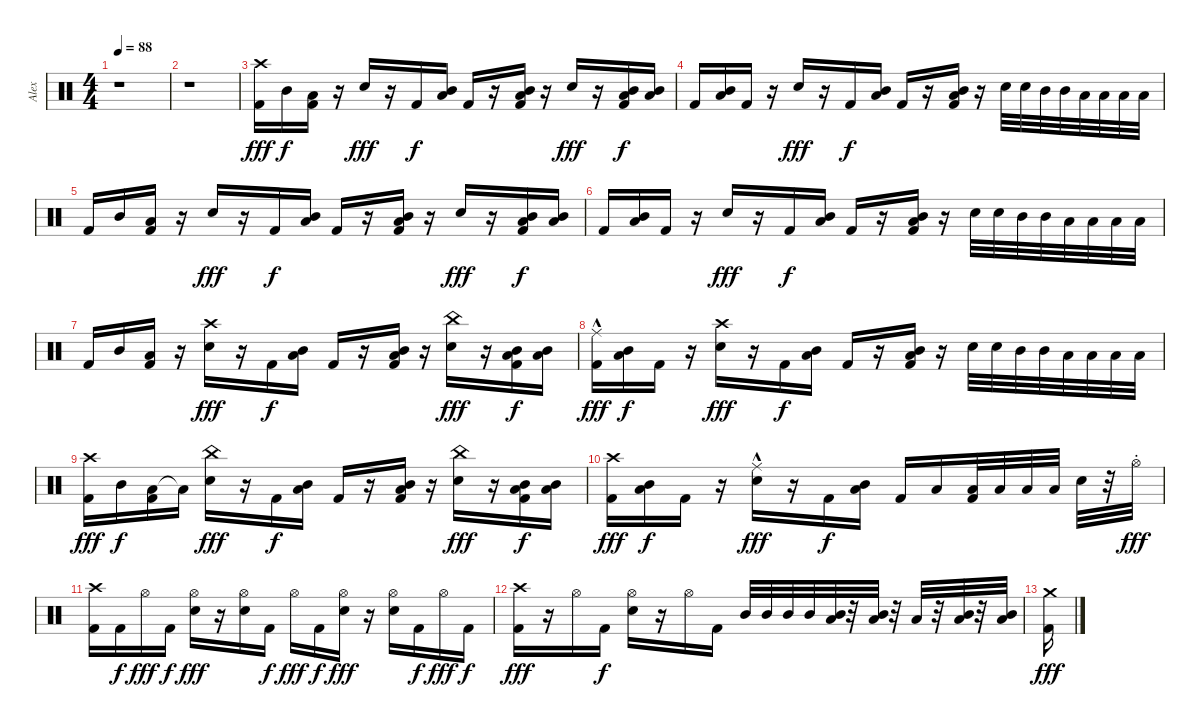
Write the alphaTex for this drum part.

\track ("Alex" "Alex") {instrument percussion}
\staff {score}
\articulation defaults
\ts (4 4)
\tempo 88
\clef neutral
\ks c
r.1{dy fff} |
r.1 |
("Crash high (hit)" "Kick (hit) 2").16 "Mid Tom (hit)".16{dy f} ("Low Tom (hit)" "Kick (hit) 2").16 r.16 "Snare (hit) 2".16{dy fff} r.16 "Kick (hit) 2".16{dy f} ("Mid Tom (hit)" "Low Tom (hit)").16 "Kick (hit) 2".16 r.16 ("Mid Tom (hit)" "Low Tom (hit)" "Kick (hit) 2").16 r.16 "Snare (hit) 2".16{dy fff} r.16 ("Mid Tom (hit)" "Low Tom (hit)" "Kick (hit) 2").16{dy f} ("Mid Tom (hit)" "Low Tom (hit)").16 |
"Kick (hit) 2".16 ("Mid Tom (hit)" "Low Tom (hit)").16 "Kick (hit) 2".16 r.16 "Snare (hit) 2".16{dy fff} r.16 "Kick (hit) 2".16{dy f} ("Mid Tom (hit)" "Low Tom (hit)").16 "Kick (hit) 2".16 r.16 ("Mid Tom (hit)" "Low Tom (hit)" "Kick (hit) 2").16 r.16 "Snare (hit) 2".32 "Snare (hit) 2".32 "Mid Tom (hit)".32 "Mid Tom (hit)".32 "Low Tom (hit)".32 "Low Tom (hit)".32 "Low Tom (hit)".32 "Low Tom (hit)".32 |
"Kick (hit) 2".16 "Mid Tom (hit)".16 ("Low Tom (hit)" "Kick (hit) 2").16 r.16 "Snare (hit) 2".16{dy fff} r.16 "Kick (hit) 2".16{dy f} ("Mid Tom (hit)" "Low Tom (hit)").16 "Kick (hit) 2".16 r.16 ("Mid Tom (hit)" "Low Tom (hit)" "Kick (hit) 2").16 r.16 "Snare (hit) 2".16{dy fff} r.16 ("Mid Tom (hit)" "Low Tom (hit)" "Kick (hit) 2").16{dy f} ("Mid Tom (hit)" "Low Tom (hit)").16 |
"Kick (hit) 2".16 ("Mid Tom (hit)" "Low Tom (hit)").16 "Kick (hit) 2".16 r.16 "Snare (hit) 2".16{dy fff} r.16 "Kick (hit) 2".16{dy f} ("Mid Tom (hit)" "Low Tom (hit)").16 "Kick (hit) 2".16 r.16 ("Mid Tom (hit)" "Low Tom (hit)" "Kick (hit) 2").16 r.16 "Snare (hit) 2".32 "Snare (hit) 2".32 "Mid Tom (hit)".32 "Mid Tom (hit)".32 "Low Tom (hit)".32 "Low Tom (hit)".32 "Low Tom (hit)".32 "Low Tom (hit)".32 |
"Kick (hit) 2".16 "Mid Tom (hit)".16 ("Low Tom (hit)" "Kick (hit) 2").16 r.16 ("Crash high (hit)" "Snare (hit) 2").16{dy fff} r.16 "Kick (hit) 2".16{dy f} ("Mid Tom (hit)" "Low Tom (hit)").16 "Kick (hit) 2".16 r.16 ("Mid Tom (hit)" "Low Tom (hit)" "Kick (hit) 2").16 r.16 ("China (hit)" "Snare (hit) 2").16{dy fff} r.16 ("Mid Tom (hit)" "Low Tom (hit)" "Kick (hit) 2").16{dy f} ("Mid Tom (hit)" "Low Tom (hit)").16 |
("Ride (middle)"{hac} "Kick (hit) 2").16{dy fff} ("Mid Tom (hit)" "Low Tom (hit)").16{dy f} "Kick (hit) 2".16 r.16 ("Crash high (hit)" "Snare (hit) 2").16{dy fff} r.16 "Kick (hit) 2".16{dy f} ("Mid Tom (hit)" "Low Tom (hit)").16 "Kick (hit) 2".16 r.16 ("Mid Tom (hit)" "Low Tom (hit)" "Kick (hit) 2").16 r.16 "Snare (hit) 2".32 "Snare (hit) 2".32 "Mid Tom (hit)".32 "Mid Tom (hit)".32 "Low Tom (hit)".32 "Low Tom (hit)".32 "Low Tom (hit)".32 "Low Tom (hit)".32 |
("Crash high (hit)" "Kick (hit) 2").16{dy fff} "Mid Tom (hit)".16{dy f} ("Low Tom (hit)" "Kick (hit) 2").16 "Low Tom (hit)"{t}.16 ("China (hit)" "Snare (hit) 2").16{dy fff} r.16 "Kick (hit) 2".16{dy f} ("Mid Tom (hit)" "Low Tom (hit)").16 "Kick (hit) 2".16 r.16 ("Mid Tom (hit)" "Low Tom (hit)" "Kick (hit) 2").16 r.16 ("China (hit)" "Snare (hit) 2").16{dy fff} r.16 ("Mid Tom (hit)" "Low Tom (hit)" "Kick (hit) 2").16{dy f} ("Mid Tom (hit)" "Low Tom (hit)").16 |
("Crash high (hit)" "Kick (hit) 2").16{dy fff} ("Mid Tom (hit)" "Low Tom (hit)").16{dy f} "Kick (hit) 2".16 r.16 ("Ride (middle)"{hac} "Snare (hit) 2").16{dy fff} r.16 "Kick (hit) 2".16{dy f} ("Mid Tom (hit)" "Low Tom (hit)").16 "Kick (hit) 2".16 "Low Tom (hit)".16 ("Low Tom (hit)" "Kick (hit) 2").32 "Low Tom (hit)".32 "Low Tom (hit)".32 "Low Tom (hit)".32 "Snare (hit) 2".32 r.32 "Hi-Hat (open)"{st}.32{dy fff} |
("Crash high (hit)" "Kick (hit) 2").16 "Kick (hit) 2".16{dy f} "Hi-Hat (open)".16{dy fff} "Kick (hit) 2".16{dy f} ("Hi-Hat (open)" "Snare (hit) 2").16{dy fff} r.16 ("Hi-Hat (open)" "Snare (hit) 2").16 "Kick (hit) 2".16{dy f} "Hi-Hat (open)".16{dy fff} "Kick (hit) 2".16{dy f} ("Hi-Hat (open)" "Snare (hit) 2").16{dy fff} r.16 ("Hi-Hat (open)" "Snare (hit) 2").16 "Kick (hit) 2".16{dy f} "Hi-Hat (open)".16{dy fff} "Kick (hit) 2".16{dy f} |
("Crash high (hit)" "Kick (hit) 2").16{dy fff} r.16 "Hi-Hat (open)".16 "Kick (hit) 2".16{dy f} ("Hi-Hat (open)" "Snare (hit) 2").16 r.16 "Hi-Hat (open)".16 "Kick (hit) 2".16 "Mid Tom (hit)".32 "Mid Tom (hit)".32 "Mid Tom (hit)".32 "Mid Tom (hit)".32 ("Mid Tom (hit)" "Low Tom (hit)").32 r.32 ("Mid Tom (hit)" "Low Tom (hit)").32 r.32 "Low Tom (hit)".32 r.32 ("Mid Tom (hit)" "Low Tom (hit)").32 r.32 ("Mid Tom (hit)" "Low Tom (hit)").32 |
("Crash medium (hit)" "Kick (hit) 2").16{dy fff}
